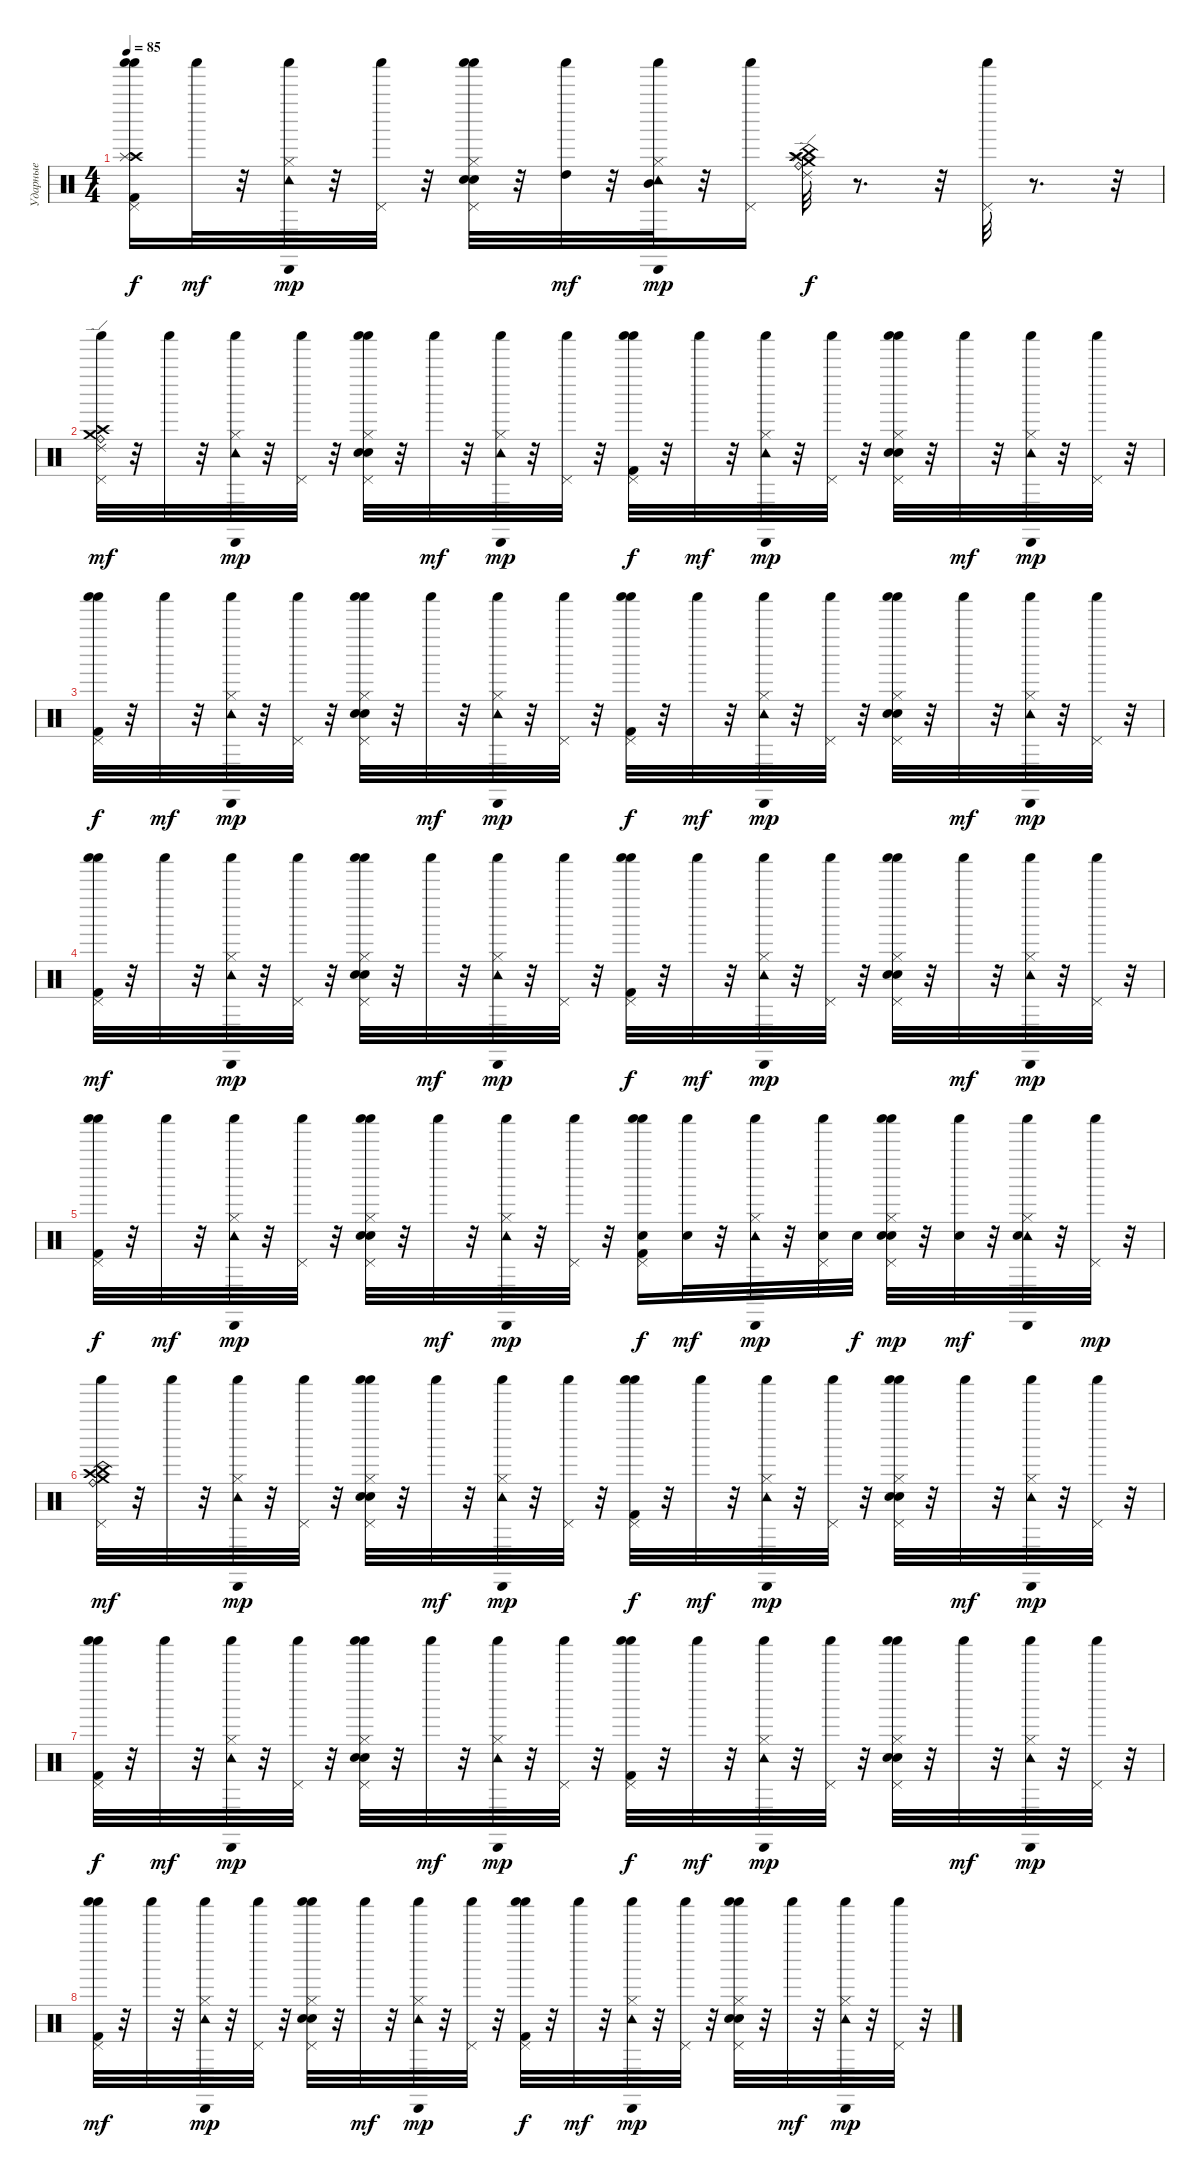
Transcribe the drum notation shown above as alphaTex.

\track ("Ударные" "Ударные") {instrument percussion}
\staff {score}
\articulation defaults
\ts (4 4)
\tempo 85
\clef neutral
\ks c
("Crash high (hit)" "Splash (hit)" "Pedal Hi-Hat (hit)" "Shaker (hit)" "Shaker (hit)" "Kick (hit) 2").16{dy f} "Shaker (hit)".32{dy mf} r.32 ("Hi-Hat (closed)" "Cabasa (hit)" "Shaker (hit)" "Tambourine (hit)").32{dy mp} r.32 ("Pedal Hi-Hat (hit)" "Shaker (hit)").32 r.32 ("Hi-Hat (closed)" "Pedal Hi-Hat (hit)" "Shaker (hit)" "Shaker (hit)" "Snare (hit) 2" "Electric Snare (hit)").32 r.32 ("High Tom (hit)" "Shaker (hit)").32{dy mf} r.32 ("Mid Tom (hit)" "Hi-Hat (closed)" "Cabasa (hit)" "Shaker (hit)" "Tambourine (hit)").32{dy mp} r.32 ("Pedal Hi-Hat (hit)" "Shaker (hit)").16 ("Ride (bell)" "Crash high (hit)" "Splash (hit)" "China (hit)" "Ride (edge) 2" "Crash medium (hit)").32{dy f} r.8{d} r.32 ("Pedal Hi-Hat (hit)" "Shaker (hit)").32 r.8{d} r.32 |
("Ride (bell)" "Crash high (hit)" "Ride (edge) 2" "Crash medium (hit)" "Pedal Hi-Hat (hit)" "Shaker (hit)").32{dy mf} r.32 "Shaker (hit)".32 r.32 ("Hi-Hat (closed)" "Cabasa (hit)" "Shaker (hit)" "Tambourine (hit)").32{dy mp} r.32 ("Pedal Hi-Hat (hit)" "Shaker (hit)").32 r.32 ("Hi-Hat (closed)" "Pedal Hi-Hat (hit)" "Shaker (hit)" "Shaker (hit)" "Snare (hit) 2" "Electric Snare (hit)").32 r.32 "Shaker (hit)".32{dy mf} r.32 ("Hi-Hat (closed)" "Cabasa (hit)" "Shaker (hit)" "Tambourine (hit)").32{dy mp} r.32 ("Pedal Hi-Hat (hit)" "Shaker (hit)").32 r.32 ("Pedal Hi-Hat (hit)" "Shaker (hit)" "Shaker (hit)" "Kick (hit) 2").32{dy f} r.32 "Shaker (hit)".32{dy mf} r.32 ("Hi-Hat (closed)" "Cabasa (hit)" "Shaker (hit)" "Tambourine (hit)").32{dy mp} r.32 ("Pedal Hi-Hat (hit)" "Shaker (hit)").32 r.32 ("Hi-Hat (closed)" "Pedal Hi-Hat (hit)" "Shaker (hit)" "Shaker (hit)" "Snare (hit) 2" "Electric Snare (hit)").32 r.32 "Shaker (hit)".32{dy mf} r.32 ("Hi-Hat (closed)" "Cabasa (hit)" "Shaker (hit)" "Tambourine (hit)").32{dy mp} r.32 ("Pedal Hi-Hat (hit)" "Shaker (hit)").32 r.32 |
("Pedal Hi-Hat (hit)" "Shaker (hit)" "Shaker (hit)" "Kick (hit) 2").32{dy f} r.32 "Shaker (hit)".32{dy mf} r.32 ("Hi-Hat (closed)" "Cabasa (hit)" "Shaker (hit)" "Tambourine (hit)").32{dy mp} r.32 ("Pedal Hi-Hat (hit)" "Shaker (hit)").32 r.32 ("Hi-Hat (closed)" "Pedal Hi-Hat (hit)" "Shaker (hit)" "Shaker (hit)" "Snare (hit) 2" "Electric Snare (hit)").32 r.32 "Shaker (hit)".32{dy mf} r.32 ("Hi-Hat (closed)" "Cabasa (hit)" "Shaker (hit)" "Tambourine (hit)").32{dy mp} r.32 ("Pedal Hi-Hat (hit)" "Shaker (hit)").32 r.32 ("Pedal Hi-Hat (hit)" "Shaker (hit)" "Shaker (hit)" "Kick (hit) 2").32{dy f} r.32 "Shaker (hit)".32{dy mf} r.32 ("Hi-Hat (closed)" "Cabasa (hit)" "Shaker (hit)" "Tambourine (hit)").32{dy mp} r.32 ("Pedal Hi-Hat (hit)" "Shaker (hit)").32 r.32 ("Hi-Hat (closed)" "Pedal Hi-Hat (hit)" "Shaker (hit)" "Shaker (hit)" "Snare (hit) 2" "Electric Snare (hit)").32 r.32 "Shaker (hit)".32{dy mf} r.32 ("Hi-Hat (closed)" "Cabasa (hit)" "Shaker (hit)" "Tambourine (hit)").32{dy mp} r.32 ("Pedal Hi-Hat (hit)" "Shaker (hit)").32 r.32 |
("Pedal Hi-Hat (hit)" "Shaker (hit)" "Shaker (hit)" "Kick (hit) 2").32{dy mf} r.32 "Shaker (hit)".32 r.32 ("Hi-Hat (closed)" "Cabasa (hit)" "Shaker (hit)" "Tambourine (hit)").32{dy mp} r.32 ("Pedal Hi-Hat (hit)" "Shaker (hit)").32 r.32 ("Hi-Hat (closed)" "Pedal Hi-Hat (hit)" "Shaker (hit)" "Shaker (hit)" "Snare (hit) 2" "Electric Snare (hit)").32 r.32 "Shaker (hit)".32{dy mf} r.32 ("Hi-Hat (closed)" "Cabasa (hit)" "Shaker (hit)" "Tambourine (hit)").32{dy mp} r.32 ("Pedal Hi-Hat (hit)" "Shaker (hit)").32 r.32 ("Pedal Hi-Hat (hit)" "Shaker (hit)" "Shaker (hit)" "Kick (hit) 2").32{dy f} r.32 "Shaker (hit)".32{dy mf} r.32 ("Hi-Hat (closed)" "Cabasa (hit)" "Shaker (hit)" "Tambourine (hit)").32{dy mp} r.32 ("Pedal Hi-Hat (hit)" "Shaker (hit)").32 r.32 ("Hi-Hat (closed)" "Pedal Hi-Hat (hit)" "Shaker (hit)" "Shaker (hit)" "Snare (hit) 2" "Electric Snare (hit)").32 r.32 "Shaker (hit)".32{dy mf} r.32 ("Hi-Hat (closed)" "Cabasa (hit)" "Shaker (hit)" "Tambourine (hit)").32{dy mp} r.32 ("Pedal Hi-Hat (hit)" "Shaker (hit)").32 r.32 |
("Pedal Hi-Hat (hit)" "Shaker (hit)" "Shaker (hit)" "Kick (hit) 2").32{dy f} r.32 "Shaker (hit)".32{dy mf} r.32 ("Hi-Hat (closed)" "Cabasa (hit)" "Shaker (hit)" "Tambourine (hit)").32{dy mp} r.32 ("Pedal Hi-Hat (hit)" "Shaker (hit)").32 r.32 ("Hi-Hat (closed)" "Pedal Hi-Hat (hit)" "Shaker (hit)" "Shaker (hit)" "Snare (hit) 2" "Electric Snare (hit)").32 r.32 "Shaker (hit)".32{dy mf} r.32 ("Hi-Hat (closed)" "Cabasa (hit)" "Shaker (hit)" "Tambourine (hit)").32{dy mp} r.32 ("Pedal Hi-Hat (hit)" "Shaker (hit)").32 r.32 ("Pedal Hi-Hat (hit)" "Shaker (hit)" "Shaker (hit)" "Kick (hit) 2" "Snare (hit) 2").16{dy f} ("Shaker (hit)" "Snare (hit) 2").32{dy mf} r.32 ("Hi-Hat (closed)" "Cabasa (hit)" "Shaker (hit)" "Tambourine (hit)").32{dy mp} r.32 ("Pedal Hi-Hat (hit)" "Shaker (hit)" "Snare (hit) 2").32 "Snare (hit) 2".32{dy f} ("Hi-Hat (closed)" "Pedal Hi-Hat (hit)" "Shaker (hit)" "Shaker (hit)" "Snare (hit) 2" "Electric Snare (hit)").32{dy mp} r.32 ("Shaker (hit)" "Snare (hit) 2").32{dy mf} r.32 ("Hi-Hat (closed)" "Cabasa (hit)" "Shaker (hit)" "Tambourine (hit)" "Snare (hit) 2").32 r.32 ("Pedal Hi-Hat (hit)" "Shaker (hit)").32{dy mp} r.32 |
("Ride (bell)" "Crash high (hit)" "China (hit)" "Crash medium (hit)" "Pedal Hi-Hat (hit)" "Shaker (hit)").32{dy mf} r.32 "Shaker (hit)".32 r.32 ("Hi-Hat (closed)" "Cabasa (hit)" "Shaker (hit)" "Tambourine (hit)").32{dy mp} r.32 ("Pedal Hi-Hat (hit)" "Shaker (hit)").32 r.32 ("Hi-Hat (closed)" "Pedal Hi-Hat (hit)" "Shaker (hit)" "Shaker (hit)" "Snare (hit) 2" "Electric Snare (hit)").32 r.32 "Shaker (hit)".32{dy mf} r.32 ("Hi-Hat (closed)" "Cabasa (hit)" "Shaker (hit)" "Tambourine (hit)").32{dy mp} r.32 ("Pedal Hi-Hat (hit)" "Shaker (hit)").32 r.32 ("Pedal Hi-Hat (hit)" "Shaker (hit)" "Shaker (hit)" "Kick (hit) 2").32{dy f} r.32 "Shaker (hit)".32{dy mf} r.32 ("Hi-Hat (closed)" "Cabasa (hit)" "Shaker (hit)" "Tambourine (hit)").32{dy mp} r.32 ("Pedal Hi-Hat (hit)" "Shaker (hit)").32 r.32 ("Hi-Hat (closed)" "Pedal Hi-Hat (hit)" "Shaker (hit)" "Shaker (hit)" "Snare (hit) 2" "Electric Snare (hit)").32 r.32 "Shaker (hit)".32{dy mf} r.32 ("Hi-Hat (closed)" "Cabasa (hit)" "Shaker (hit)" "Tambourine (hit)").32{dy mp} r.32 ("Pedal Hi-Hat (hit)" "Shaker (hit)").32 r.32 |
("Pedal Hi-Hat (hit)" "Shaker (hit)" "Shaker (hit)" "Kick (hit) 2").32{dy f} r.32 "Shaker (hit)".32{dy mf} r.32 ("Hi-Hat (closed)" "Cabasa (hit)" "Shaker (hit)" "Tambourine (hit)").32{dy mp} r.32 ("Pedal Hi-Hat (hit)" "Shaker (hit)").32 r.32 ("Hi-Hat (closed)" "Pedal Hi-Hat (hit)" "Shaker (hit)" "Shaker (hit)" "Snare (hit) 2" "Electric Snare (hit)").32 r.32 "Shaker (hit)".32{dy mf} r.32 ("Hi-Hat (closed)" "Cabasa (hit)" "Shaker (hit)" "Tambourine (hit)").32{dy mp} r.32 ("Pedal Hi-Hat (hit)" "Shaker (hit)").32 r.32 ("Pedal Hi-Hat (hit)" "Shaker (hit)" "Shaker (hit)" "Kick (hit) 2").32{dy f} r.32 "Shaker (hit)".32{dy mf} r.32 ("Hi-Hat (closed)" "Cabasa (hit)" "Shaker (hit)" "Tambourine (hit)").32{dy mp} r.32 ("Pedal Hi-Hat (hit)" "Shaker (hit)").32 r.32 ("Hi-Hat (closed)" "Pedal Hi-Hat (hit)" "Shaker (hit)" "Shaker (hit)" "Snare (hit) 2" "Electric Snare (hit)").32 r.32 "Shaker (hit)".32{dy mf} r.32 ("Hi-Hat (closed)" "Cabasa (hit)" "Shaker (hit)" "Tambourine (hit)").32{dy mp} r.32 ("Pedal Hi-Hat (hit)" "Shaker (hit)").32 r.32 |
("Pedal Hi-Hat (hit)" "Shaker (hit)" "Shaker (hit)" "Kick (hit) 2").32{dy mf} r.32 "Shaker (hit)".32 r.32 ("Hi-Hat (closed)" "Cabasa (hit)" "Shaker (hit)" "Tambourine (hit)").32{dy mp} r.32 ("Pedal Hi-Hat (hit)" "Shaker (hit)").32 r.32 ("Hi-Hat (closed)" "Pedal Hi-Hat (hit)" "Shaker (hit)" "Shaker (hit)" "Snare (hit) 2" "Electric Snare (hit)").32 r.32 "Shaker (hit)".32{dy mf} r.32 ("Hi-Hat (closed)" "Cabasa (hit)" "Shaker (hit)" "Tambourine (hit)").32{dy mp} r.32 ("Pedal Hi-Hat (hit)" "Shaker (hit)").32 r.32 ("Pedal Hi-Hat (hit)" "Shaker (hit)" "Shaker (hit)" "Kick (hit) 2").32{dy f} r.32 "Shaker (hit)".32{dy mf} r.32 ("Hi-Hat (closed)" "Cabasa (hit)" "Shaker (hit)" "Tambourine (hit)").32{dy mp} r.32 ("Pedal Hi-Hat (hit)" "Shaker (hit)").32 r.32 ("Hi-Hat (closed)" "Pedal Hi-Hat (hit)" "Shaker (hit)" "Shaker (hit)" "Snare (hit) 2" "Electric Snare (hit)").32 r.32 "Shaker (hit)".32{dy mf} r.32 ("Hi-Hat (closed)" "Cabasa (hit)" "Shaker (hit)" "Tambourine (hit)").32{dy mp} r.32 ("Pedal Hi-Hat (hit)" "Shaker (hit)").32 r.32
